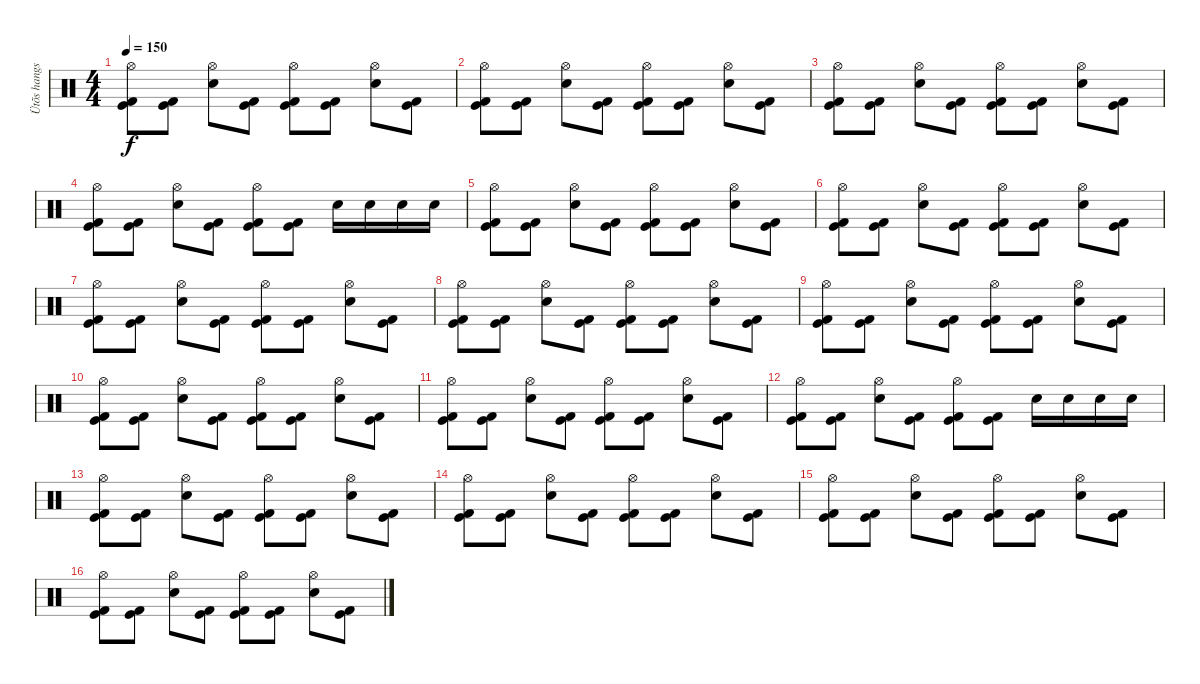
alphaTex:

\track ("Ütõs hangszer" "Ütõs hangs") {instrument percussion}
\staff {score}
\articulation defaults
\ts (4 4)
\tempo 150
\clef neutral
\ks c
("Hi-Hat (open)" "Kick (hit)" "Kick (hit) 2").8{dy f} ("Kick (hit)" "Kick (hit) 2").8 ("Hi-Hat (open)" "Electric Snare (hit)").8 ("Kick (hit)" "Kick (hit) 2").8 ("Hi-Hat (open)" "Kick (hit)" "Kick (hit) 2").8 ("Kick (hit)" "Kick (hit) 2").8 ("Hi-Hat (open)" "Electric Snare (hit)").8 ("Kick (hit)" "Kick (hit) 2").8 |
("Hi-Hat (open)" "Kick (hit)" "Kick (hit) 2").8 ("Kick (hit)" "Kick (hit) 2").8 ("Hi-Hat (open)" "Electric Snare (hit)").8 ("Kick (hit)" "Kick (hit) 2").8 ("Hi-Hat (open)" "Kick (hit)" "Kick (hit) 2").8 ("Kick (hit)" "Kick (hit) 2").8 ("Hi-Hat (open)" "Electric Snare (hit)").8 ("Kick (hit)" "Kick (hit) 2").8 |
("Hi-Hat (open)" "Kick (hit)" "Kick (hit) 2").8 ("Kick (hit)" "Kick (hit) 2").8 ("Hi-Hat (open)" "Electric Snare (hit)").8 ("Kick (hit)" "Kick (hit) 2").8 ("Hi-Hat (open)" "Kick (hit)" "Kick (hit) 2").8 ("Kick (hit)" "Kick (hit) 2").8 ("Hi-Hat (open)" "Electric Snare (hit)").8 ("Kick (hit)" "Kick (hit) 2").8 |
("Hi-Hat (open)" "Kick (hit)" "Kick (hit) 2").8 ("Kick (hit)" "Kick (hit) 2").8 ("Hi-Hat (open)" "Electric Snare (hit)").8 ("Kick (hit)" "Kick (hit) 2").8 ("Hi-Hat (open)" "Kick (hit)" "Kick (hit) 2").8 ("Kick (hit)" "Kick (hit) 2").8 "Electric Snare (hit)".16 "Electric Snare (hit)".16 "Electric Snare (hit)".16 "Electric Snare (hit)".16 |
("Hi-Hat (open)" "Kick (hit)" "Kick (hit) 2").8 ("Kick (hit)" "Kick (hit) 2").8 ("Hi-Hat (open)" "Electric Snare (hit)").8 ("Kick (hit)" "Kick (hit) 2").8 ("Hi-Hat (open)" "Kick (hit)" "Kick (hit) 2").8 ("Kick (hit)" "Kick (hit) 2").8 ("Hi-Hat (open)" "Electric Snare (hit)").8 ("Kick (hit)" "Kick (hit) 2").8 |
("Hi-Hat (open)" "Kick (hit)" "Kick (hit) 2").8 ("Kick (hit)" "Kick (hit) 2").8 ("Hi-Hat (open)" "Electric Snare (hit)").8 ("Kick (hit)" "Kick (hit) 2").8 ("Hi-Hat (open)" "Kick (hit)" "Kick (hit) 2").8 ("Kick (hit)" "Kick (hit) 2").8 ("Hi-Hat (open)" "Electric Snare (hit)").8 ("Kick (hit)" "Kick (hit) 2").8 |
("Hi-Hat (open)" "Kick (hit)" "Kick (hit) 2").8 ("Kick (hit)" "Kick (hit) 2").8 ("Hi-Hat (open)" "Electric Snare (hit)").8 ("Kick (hit)" "Kick (hit) 2").8 ("Hi-Hat (open)" "Kick (hit)" "Kick (hit) 2").8 ("Kick (hit)" "Kick (hit) 2").8 ("Hi-Hat (open)" "Electric Snare (hit)").8 ("Kick (hit)" "Kick (hit) 2").8 |
("Hi-Hat (open)" "Kick (hit)" "Kick (hit) 2").8 ("Kick (hit)" "Kick (hit) 2").8 ("Hi-Hat (open)" "Electric Snare (hit)").8 ("Kick (hit)" "Kick (hit) 2").8 ("Hi-Hat (open)" "Kick (hit)" "Kick (hit) 2").8 ("Kick (hit)" "Kick (hit) 2").8 ("Hi-Hat (open)" "Electric Snare (hit)").8 ("Kick (hit)" "Kick (hit) 2").8 |
("Hi-Hat (open)" "Kick (hit)" "Kick (hit) 2").8 ("Kick (hit)" "Kick (hit) 2").8 ("Hi-Hat (open)" "Electric Snare (hit)").8 ("Kick (hit)" "Kick (hit) 2").8 ("Hi-Hat (open)" "Kick (hit)" "Kick (hit) 2").8 ("Kick (hit)" "Kick (hit) 2").8 ("Hi-Hat (open)" "Electric Snare (hit)").8 ("Kick (hit)" "Kick (hit) 2").8 |
("Hi-Hat (open)" "Kick (hit)" "Kick (hit) 2").8 ("Kick (hit)" "Kick (hit) 2").8 ("Hi-Hat (open)" "Electric Snare (hit)").8 ("Kick (hit)" "Kick (hit) 2").8 ("Hi-Hat (open)" "Kick (hit)" "Kick (hit) 2").8 ("Kick (hit)" "Kick (hit) 2").8 ("Hi-Hat (open)" "Electric Snare (hit)").8 ("Kick (hit)" "Kick (hit) 2").8 |
("Hi-Hat (open)" "Kick (hit)" "Kick (hit) 2").8 ("Kick (hit)" "Kick (hit) 2").8 ("Hi-Hat (open)" "Electric Snare (hit)").8 ("Kick (hit)" "Kick (hit) 2").8 ("Hi-Hat (open)" "Kick (hit)" "Kick (hit) 2").8 ("Kick (hit)" "Kick (hit) 2").8 ("Hi-Hat (open)" "Electric Snare (hit)").8 ("Kick (hit)" "Kick (hit) 2").8 |
("Hi-Hat (open)" "Kick (hit)" "Kick (hit) 2").8 ("Kick (hit)" "Kick (hit) 2").8 ("Hi-Hat (open)" "Electric Snare (hit)").8 ("Kick (hit)" "Kick (hit) 2").8 ("Hi-Hat (open)" "Kick (hit)" "Kick (hit) 2").8 ("Kick (hit)" "Kick (hit) 2").8 "Electric Snare (hit)".16 "Electric Snare (hit)".16 "Electric Snare (hit)".16 "Electric Snare (hit)".16 |
("Hi-Hat (open)" "Kick (hit)" "Kick (hit) 2").8 ("Kick (hit)" "Kick (hit) 2").8 ("Hi-Hat (open)" "Electric Snare (hit)").8 ("Kick (hit)" "Kick (hit) 2").8 ("Hi-Hat (open)" "Kick (hit)" "Kick (hit) 2").8 ("Kick (hit)" "Kick (hit) 2").8 ("Hi-Hat (open)" "Electric Snare (hit)").8 ("Kick (hit)" "Kick (hit) 2").8 |
("Hi-Hat (open)" "Kick (hit)" "Kick (hit) 2").8 ("Kick (hit)" "Kick (hit) 2").8 ("Hi-Hat (open)" "Electric Snare (hit)").8 ("Kick (hit)" "Kick (hit) 2").8 ("Hi-Hat (open)" "Kick (hit)" "Kick (hit) 2").8 ("Kick (hit)" "Kick (hit) 2").8 ("Hi-Hat (open)" "Electric Snare (hit)").8 ("Kick (hit)" "Kick (hit) 2").8 |
("Hi-Hat (open)" "Kick (hit)" "Kick (hit) 2").8 ("Kick (hit)" "Kick (hit) 2").8 ("Hi-Hat (open)" "Electric Snare (hit)").8 ("Kick (hit)" "Kick (hit) 2").8 ("Hi-Hat (open)" "Kick (hit)" "Kick (hit) 2").8 ("Kick (hit)" "Kick (hit) 2").8 ("Hi-Hat (open)" "Electric Snare (hit)").8 ("Kick (hit)" "Kick (hit) 2").8 |
("Hi-Hat (open)" "Kick (hit)" "Kick (hit) 2").8 ("Kick (hit)" "Kick (hit) 2").8 ("Hi-Hat (open)" "Electric Snare (hit)").8 ("Kick (hit)" "Kick (hit) 2").8 ("Hi-Hat (open)" "Kick (hit)" "Kick (hit) 2").8 ("Kick (hit)" "Kick (hit) 2").8 ("Hi-Hat (open)" "Electric Snare (hit)").8 ("Kick (hit)" "Kick (hit) 2").8
